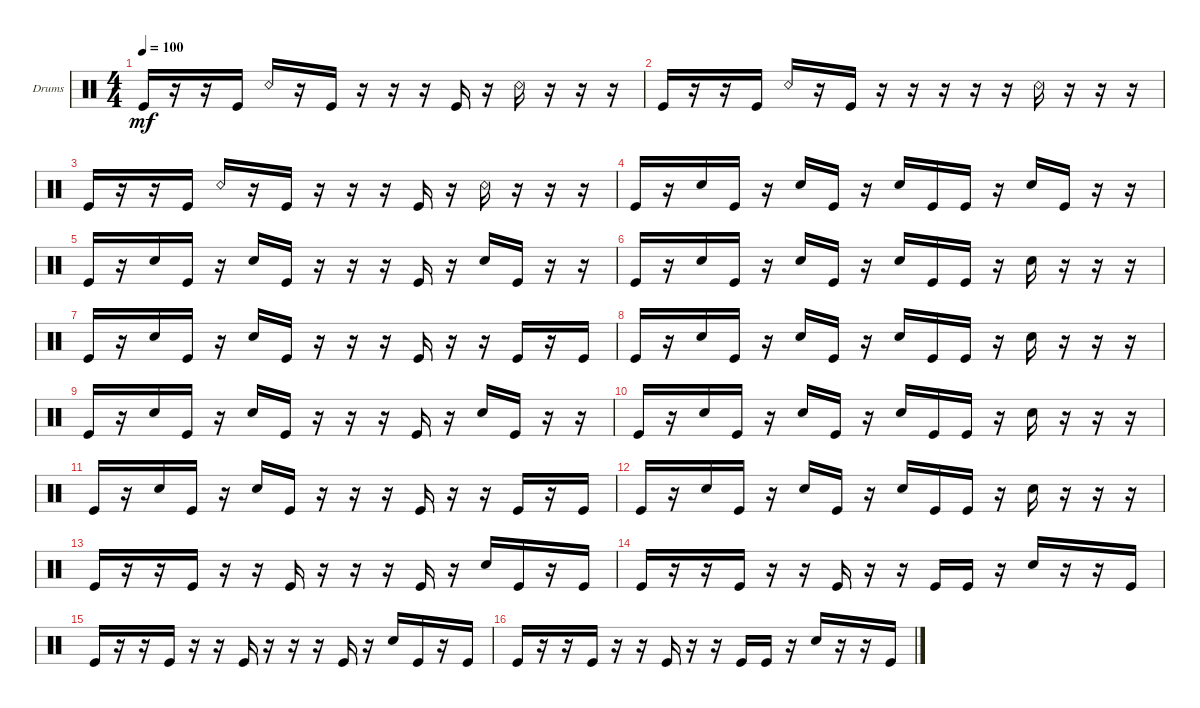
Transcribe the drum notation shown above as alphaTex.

\defaultSystemsLayout 4
\bracketExtendMode groupsimilarinstruments
\firstSystemTrackNameOrientation horizontal
\otherSystemsTrackNameOrientation horizontal
\track ("Drumkit" "Drums") {instrument percussion}
\staff {score}
\articulation defaults
\ts (4 4)
\tempo 100
\clef neutral
\ks c "Kick (hit)".16{dy mf}
r.16 r.16 "Kick (hit)".16 "Snare (rim shot)".16 r.16 "Kick (hit)".16 r.16 r.16 r.16 "Kick (hit)".16 r.16 "Snare (rim shot)".16 r.16 r.16 r.16 |
"Kick (hit)".16 r.16 r.16 "Kick (hit)".16 "Snare (rim shot)".16 r.16 "Kick (hit)".16 r.16 r.16 r.16 r.16 r.16 "Snare (rim shot)".16 r.16 r.16 r.16 |
"Kick (hit)".16 r.16 r.16 "Kick (hit)".16 "Snare (rim shot)".16 r.16 "Kick (hit)".16 r.16 r.16 r.16 "Kick (hit)".16 r.16 "Snare (rim shot)".16 r.16 r.16 r.16 |
"Kick (hit)".16 r.16 "Snare (hit) 2".16 "Kick (hit)".16 r.16 "Snare (hit) 2".16 "Kick (hit)".16 r.16 "Snare (hit) 2".16 "Kick (hit)".16 "Kick (hit)".16 r.16 "Snare (hit) 2".16 "Kick (hit)".16 r.16 r.16 |
"Kick (hit)".16 r.16 "Snare (hit) 2".16 "Kick (hit)".16 r.16 "Snare (hit) 2".16 "Kick (hit)".16 r.16 r.16 r.16 "Kick (hit)".16 r.16 "Snare (hit) 2".16 "Kick (hit)".16 r.16 r.16 |
"Kick (hit)".16 r.16 "Snare (hit) 2".16 "Kick (hit)".16 r.16 "Snare (hit) 2".16 "Kick (hit)".16 r.16 "Snare (hit) 2".16 "Kick (hit)".16 "Kick (hit)".16 r.16 "Snare (hit) 2".16 r.16 r.16 r.16 |
"Kick (hit)".16 r.16 "Snare (hit) 2".16 "Kick (hit)".16 r.16 "Snare (hit) 2".16 "Kick (hit)".16 r.16 r.16 r.16 "Kick (hit)".16 r.16 r.16 "Kick (hit)".16 r.16 "Kick (hit)".16 |
"Kick (hit)".16 r.16 "Snare (hit) 2".16 "Kick (hit)".16 r.16 "Snare (hit) 2".16 "Kick (hit)".16 r.16 "Snare (hit) 2".16 "Kick (hit)".16 "Kick (hit)".16 r.16 "Snare (hit) 2".16 r.16 r.16 r.16 |
"Kick (hit)".16 r.16 "Snare (hit) 2".16 "Kick (hit)".16 r.16 "Snare (hit) 2".16 "Kick (hit)".16 r.16 r.16 r.16 "Kick (hit)".16 r.16 "Snare (hit) 2".16 "Kick (hit)".16 r.16 r.16 |
"Kick (hit)".16 r.16 "Snare (hit) 2".16 "Kick (hit)".16 r.16 "Snare (hit) 2".16 "Kick (hit)".16 r.16 "Snare (hit) 2".16 "Kick (hit)".16 "Kick (hit)".16 r.16 "Snare (hit) 2".16 r.16 r.16 r.16 |
"Kick (hit)".16 r.16 "Snare (hit) 2".16 "Kick (hit)".16 r.16 "Snare (hit) 2".16 "Kick (hit)".16 r.16 r.16 r.16 "Kick (hit)".16 r.16 r.16 "Kick (hit)".16 r.16 "Kick (hit)".16 |
"Kick (hit)".16 r.16 "Snare (hit) 2".16 "Kick (hit)".16 r.16 "Snare (hit) 2".16 "Kick (hit)".16 r.16 "Snare (hit) 2".16 "Kick (hit)".16 "Kick (hit)".16 r.16 "Snare (hit) 2".16 r.16 r.16 r.16 |
"Kick (hit)".16 r.16 r.16 "Kick (hit)".16 r.16 r.16 "Kick (hit)".16 r.16 r.16 r.16 "Kick (hit)".16 r.16 "Snare (hit) 2".16 "Kick (hit)".16 r.16 "Kick (hit)".16 |
"Kick (hit)".16 r.16 r.16 "Kick (hit)".16 r.16 r.16 "Kick (hit)".16 r.16 r.16 "Kick (hit)".16 "Kick (hit)".16 r.16 "Snare (hit) 2".16 r.16 r.16 "Kick (hit)".16 |
"Kick (hit)".16 r.16 r.16 "Kick (hit)".16 r.16 r.16 "Kick (hit)".16 r.16 r.16 r.16 "Kick (hit)".16 r.16 "Snare (hit) 2".16 "Kick (hit)".16 r.16 "Kick (hit)".16 |
"Kick (hit)".16 r.16 r.16 "Kick (hit)".16 r.16 r.16 "Kick (hit)".16 r.16 r.16 "Kick (hit)".16 "Kick (hit)".16 r.16 "Snare (hit) 2".16 r.16 r.16 "Kick (hit)".16
